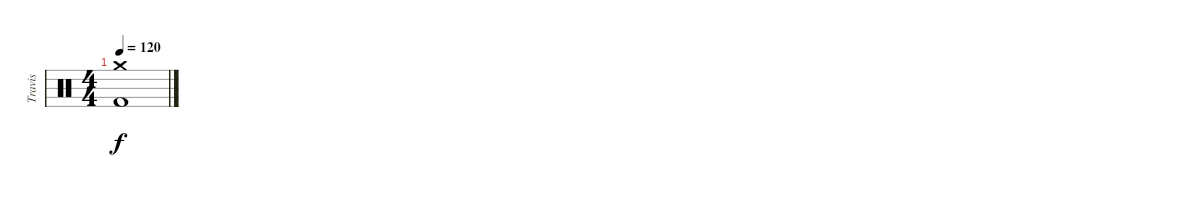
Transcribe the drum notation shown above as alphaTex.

\track ("Travis" "Travis") {instrument percussion}
\staff {score}
\articulation defaults
\ts (4 4)
\tempo 120
\clef neutral
\ks c
("Crash medium (hit)" "Kick (hit) 2").1{dy f}
